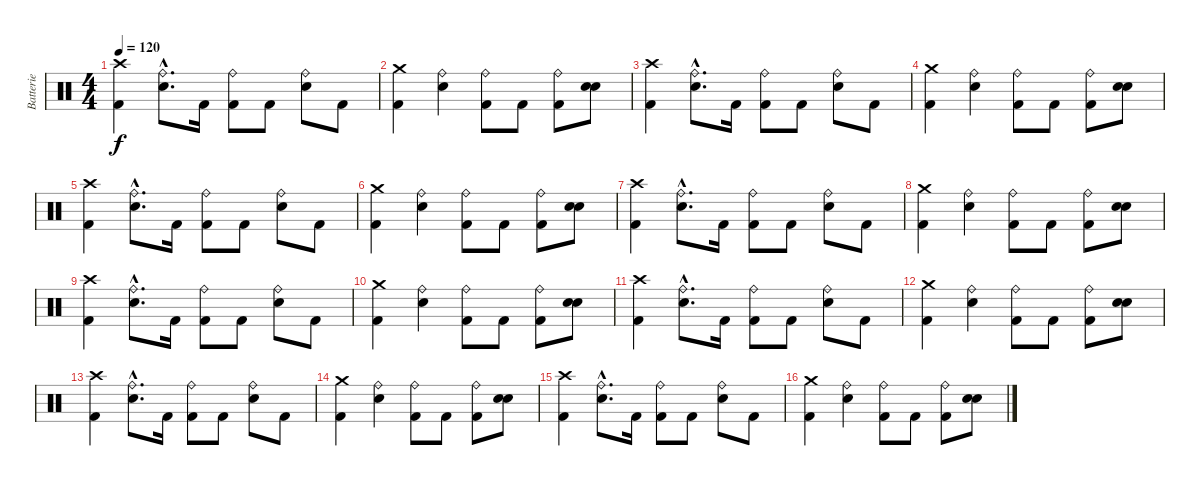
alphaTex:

\track ("Batterie" "Batterie") {instrument percussion}
\staff {score}
\articulation defaults
\ts (4 4)
\tempo 120
\clef neutral
\ks c
("Crash high (hit)" "Kick (hit) 2").4{dy f} ("Ride (bell)"{hac} "Snare (hit) 2"{hac}).8{d} "Kick (hit) 2".16 ("Ride (bell)" "Kick (hit) 2").8 "Kick (hit) 2".8 ("Ride (bell)" "Snare (hit) 2").8 "Kick (hit) 2".8 |
("Crash medium (hit)" "Kick (hit) 2").4 ("Ride (bell)" "Snare (hit) 2").4 ("Ride (bell)" "Kick (hit) 2").8 "Kick (hit) 2".8 ("Ride (bell)" "Kick (hit) 2").8 ("Snare (hit) 2" "Snare (hit) 2").8{bd 120} |
("Crash high (hit)" "Kick (hit) 2").4 ("Ride (bell)"{hac} "Snare (hit) 2"{hac}).8{d} "Kick (hit) 2".16 ("Ride (bell)" "Kick (hit) 2").8 "Kick (hit) 2".8 ("Ride (bell)" "Snare (hit) 2").8 "Kick (hit) 2".8 |
("Crash medium (hit)" "Kick (hit) 2").4 ("Ride (bell)" "Snare (hit) 2").4 ("Ride (bell)" "Kick (hit) 2").8 "Kick (hit) 2".8 ("Ride (bell)" "Kick (hit) 2").8 ("Snare (hit) 2" "Snare (hit) 2").8{bd 120} |
("Crash high (hit)" "Kick (hit) 2").4 ("Ride (bell)"{hac} "Snare (hit) 2"{hac}).8{d} "Kick (hit) 2".16 ("Ride (bell)" "Kick (hit) 2").8 "Kick (hit) 2".8 ("Ride (bell)" "Snare (hit) 2").8 "Kick (hit) 2".8 |
("Crash medium (hit)" "Kick (hit) 2").4 ("Ride (bell)" "Snare (hit) 2").4 ("Ride (bell)" "Kick (hit) 2").8 "Kick (hit) 2".8 ("Ride (bell)" "Kick (hit) 2").8 ("Snare (hit) 2" "Snare (hit) 2").8{bd 120} |
("Crash high (hit)" "Kick (hit) 2").4 ("Ride (bell)"{hac} "Snare (hit) 2"{hac}).8{d} "Kick (hit) 2".16 ("Ride (bell)" "Kick (hit) 2").8 "Kick (hit) 2".8 ("Ride (bell)" "Snare (hit) 2").8 "Kick (hit) 2".8 |
("Crash medium (hit)" "Kick (hit) 2").4 ("Ride (bell)" "Snare (hit) 2").4 ("Ride (bell)" "Kick (hit) 2").8 "Kick (hit) 2".8 ("Ride (bell)" "Kick (hit) 2").8 ("Snare (hit) 2" "Snare (hit) 2").8{bd 120} |
("Crash high (hit)" "Kick (hit) 2").4 ("Ride (bell)"{hac} "Snare (hit) 2"{hac}).8{d} "Kick (hit) 2".16 ("Ride (bell)" "Kick (hit) 2").8 "Kick (hit) 2".8 ("Ride (bell)" "Snare (hit) 2").8 "Kick (hit) 2".8 |
("Crash medium (hit)" "Kick (hit) 2").4 ("Ride (bell)" "Snare (hit) 2").4 ("Ride (bell)" "Kick (hit) 2").8 "Kick (hit) 2".8 ("Ride (bell)" "Kick (hit) 2").8 ("Snare (hit) 2" "Snare (hit) 2").8{bd 120} |
("Crash high (hit)" "Kick (hit) 2").4 ("Ride (bell)"{hac} "Snare (hit) 2"{hac}).8{d} "Kick (hit) 2".16 ("Ride (bell)" "Kick (hit) 2").8 "Kick (hit) 2".8 ("Ride (bell)" "Snare (hit) 2").8 "Kick (hit) 2".8 |
("Crash medium (hit)" "Kick (hit) 2").4 ("Ride (bell)" "Snare (hit) 2").4 ("Ride (bell)" "Kick (hit) 2").8 "Kick (hit) 2".8 ("Ride (bell)" "Kick (hit) 2").8 ("Snare (hit) 2" "Snare (hit) 2").8{bd 120} |
("Crash high (hit)" "Kick (hit) 2").4 ("Ride (bell)"{hac} "Snare (hit) 2"{hac}).8{d} "Kick (hit) 2".16 ("Ride (bell)" "Kick (hit) 2").8 "Kick (hit) 2".8 ("Ride (bell)" "Snare (hit) 2").8 "Kick (hit) 2".8 |
("Crash medium (hit)" "Kick (hit) 2").4 ("Ride (bell)" "Snare (hit) 2").4 ("Ride (bell)" "Kick (hit) 2").8 "Kick (hit) 2".8 ("Ride (bell)" "Kick (hit) 2").8 ("Snare (hit) 2" "Snare (hit) 2").8{bd 120} |
("Crash high (hit)" "Kick (hit) 2").4 ("Ride (bell)"{hac} "Snare (hit) 2"{hac}).8{d} "Kick (hit) 2".16 ("Ride (bell)" "Kick (hit) 2").8 "Kick (hit) 2".8 ("Ride (bell)" "Snare (hit) 2").8 "Kick (hit) 2".8 |
("Crash medium (hit)" "Kick (hit) 2").4 ("Ride (bell)" "Snare (hit) 2").4 ("Ride (bell)" "Kick (hit) 2").8 "Kick (hit) 2".8 ("Ride (bell)" "Kick (hit) 2").8 ("Snare (hit) 2" "Snare (hit) 2").8{bd 120}
